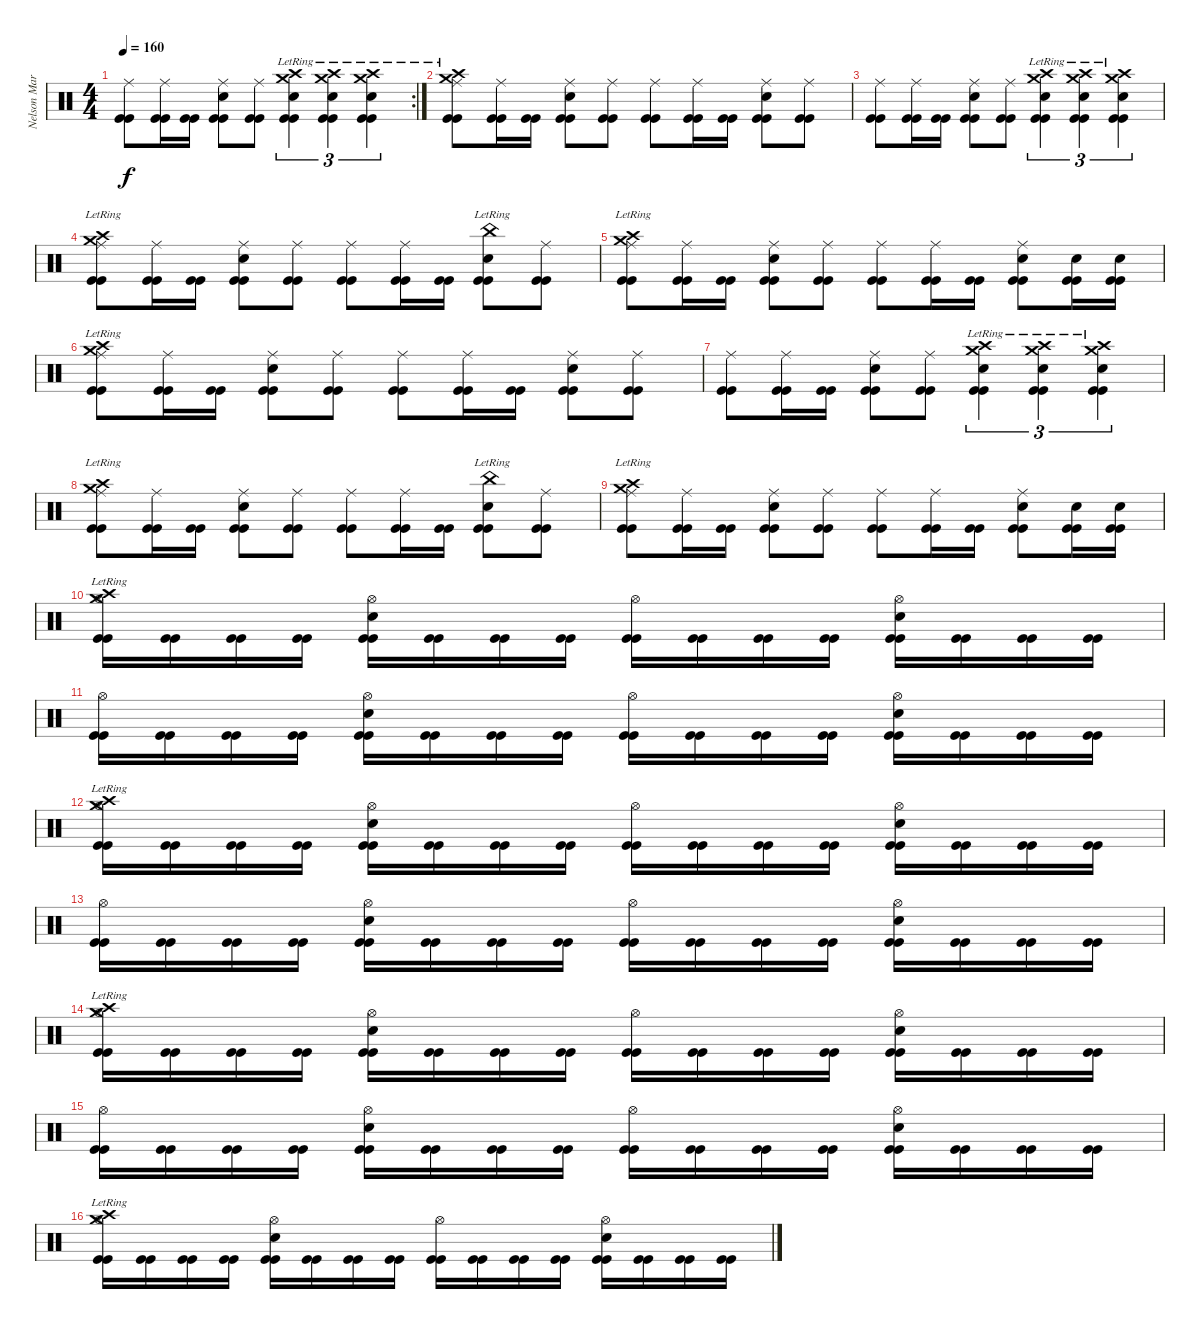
\track ("Nelson Maria" "Nelson Mar") {instrument percussion}
\staff {score}
\articulation defaults
\rc 2
\ts (4 4)
\tempo 160
\clef neutral
\ks c
("Ride (middle)" "Kick (hit)" "Kick (hit)").8{dy f} ("Ride (middle)" "Kick (hit)" "Kick (hit)").16 ("Kick (hit)" "Kick (hit)").16 ("Snare (hit) 2" "Ride (middle)" "Kick (hit)" "Kick (hit)").8 ("Ride (middle)" "Kick (hit)" "Kick (hit)").8 ("Crash high (hit)"{lr} "Crash medium (hit)"{lr} "Snare (hit) 2" "Kick (hit)" "Kick (hit)").4{tu (3 2)} ("Crash high (hit)"{lr} "Crash medium (hit)"{lr} "Snare (hit) 2" "Kick (hit)" "Kick (hit)").4{tu (3 2)} ("Crash high (hit)"{lr} "Crash medium (hit)"{lr} "Snare (hit) 2" "Kick (hit)" "Kick (hit)").4{tu (3 2)} |
("Crash high (hit)"{lr} "Crash medium (hit)"{lr} "Ride (middle)" "Kick (hit)" "Kick (hit)").8 ("Ride (middle)" "Kick (hit)" "Kick (hit)").16 ("Kick (hit)" "Kick (hit)").16 ("Snare (hit) 2" "Ride (middle)" "Kick (hit)" "Kick (hit)").8 ("Ride (middle)" "Kick (hit)" "Kick (hit)").8 ("Ride (middle)" "Kick (hit)" "Kick (hit)").8 ("Ride (middle)" "Kick (hit)" "Kick (hit)").16 ("Kick (hit)" "Kick (hit)").16 ("Snare (hit) 2" "Ride (middle)" "Kick (hit)" "Kick (hit)").8 ("Ride (middle)" "Kick (hit)" "Kick (hit)").8 |
("Ride (middle)" "Kick (hit)" "Kick (hit)").8 ("Ride (middle)" "Kick (hit)" "Kick (hit)").16 ("Kick (hit)" "Kick (hit)").16 ("Snare (hit) 2" "Ride (middle)" "Kick (hit)" "Kick (hit)").8 ("Ride (middle)" "Kick (hit)" "Kick (hit)").8 ("Crash high (hit)"{lr} "Crash medium (hit)"{lr} "Snare (hit) 2" "Kick (hit)" "Kick (hit)").4{tu (3 2)} ("Crash high (hit)"{lr} "Crash medium (hit)"{lr} "Snare (hit) 2" "Kick (hit)" "Kick (hit)").4{tu (3 2)} ("Crash high (hit)"{lr} "Crash medium (hit)"{lr} "Snare (hit) 2" "Kick (hit)" "Kick (hit)").4{tu (3 2)} |
("Crash high (hit)"{lr} "Crash medium (hit)"{lr} "Ride (middle)" "Kick (hit)" "Kick (hit)").8 ("Ride (middle)" "Kick (hit)" "Kick (hit)").16 ("Kick (hit)" "Kick (hit)").16 ("Snare (hit) 2" "Ride (middle)" "Kick (hit)" "Kick (hit)").8 ("Ride (middle)" "Kick (hit)" "Kick (hit)").8 ("Ride (middle)" "Kick (hit)" "Kick (hit)").8 ("Ride (middle)" "Kick (hit)" "Kick (hit)").16 ("Kick (hit)" "Kick (hit)").16 ("China (hit)"{lr} "Snare (hit) 2" "Kick (hit)" "Kick (hit)").8 ("Ride (middle)" "Kick (hit)" "Kick (hit)").8 |
("Crash high (hit)"{lr} "Crash medium (hit)"{lr} "Ride (middle)" "Kick (hit)" "Kick (hit)").8 ("Ride (middle)" "Kick (hit)" "Kick (hit)").16 ("Kick (hit)" "Kick (hit)").16 ("Snare (hit) 2" "Ride (middle)" "Kick (hit)" "Kick (hit)").8 ("Ride (middle)" "Kick (hit)" "Kick (hit)").8 ("Ride (middle)" "Kick (hit)" "Kick (hit)").8 ("Ride (middle)" "Kick (hit)" "Kick (hit)").16 ("Kick (hit)" "Kick (hit)").16 ("Snare (hit) 2" "Ride (middle)" "Kick (hit)" "Kick (hit)").8 ("Snare (hit) 2" "Kick (hit)" "Kick (hit)").16 ("Snare (hit) 2" "Kick (hit)" "Kick (hit)").16 |
("Crash high (hit)"{lr} "Crash medium (hit)"{lr} "Ride (middle)" "Kick (hit)" "Kick (hit)").8 ("Ride (middle)" "Kick (hit)" "Kick (hit)").16 ("Kick (hit)" "Kick (hit)").16 ("Snare (hit) 2" "Ride (middle)" "Kick (hit)" "Kick (hit)").8 ("Ride (middle)" "Kick (hit)" "Kick (hit)").8 ("Ride (middle)" "Kick (hit)" "Kick (hit)").8 ("Ride (middle)" "Kick (hit)" "Kick (hit)").16 ("Kick (hit)" "Kick (hit)").16 ("Snare (hit) 2" "Ride (middle)" "Kick (hit)" "Kick (hit)").8 ("Ride (middle)" "Kick (hit)" "Kick (hit)").8 |
("Ride (middle)" "Kick (hit)" "Kick (hit)").8 ("Ride (middle)" "Kick (hit)" "Kick (hit)").16 ("Kick (hit)" "Kick (hit)").16 ("Snare (hit) 2" "Ride (middle)" "Kick (hit)" "Kick (hit)").8 ("Ride (middle)" "Kick (hit)" "Kick (hit)").8 ("Crash high (hit)"{lr} "Crash medium (hit)"{lr} "Snare (hit) 2" "Kick (hit)" "Kick (hit)").4{tu (3 2)} ("Crash high (hit)"{lr} "Crash medium (hit)"{lr} "Snare (hit) 2" "Kick (hit)" "Kick (hit)").4{tu (3 2)} ("Crash high (hit)"{lr} "Crash medium (hit)"{lr} "Snare (hit) 2" "Kick (hit)" "Kick (hit)").4{tu (3 2)} |
("Crash high (hit)"{lr} "Crash medium (hit)"{lr} "Ride (middle)" "Kick (hit)" "Kick (hit)").8 ("Ride (middle)" "Kick (hit)" "Kick (hit)").16 ("Kick (hit)" "Kick (hit)").16 ("Snare (hit) 2" "Ride (middle)" "Kick (hit)" "Kick (hit)").8 ("Ride (middle)" "Kick (hit)" "Kick (hit)").8 ("Ride (middle)" "Kick (hit)" "Kick (hit)").8 ("Ride (middle)" "Kick (hit)" "Kick (hit)").16 ("Kick (hit)" "Kick (hit)").16 ("China (hit)"{lr} "Snare (hit) 2" "Kick (hit)" "Kick (hit)").8 ("Ride (middle)" "Kick (hit)" "Kick (hit)").8 |
("Crash high (hit)"{lr} "Crash medium (hit)"{lr} "Ride (middle)" "Kick (hit)" "Kick (hit)").8 ("Ride (middle)" "Kick (hit)" "Kick (hit)").16 ("Kick (hit)" "Kick (hit)").16 ("Snare (hit) 2" "Ride (middle)" "Kick (hit)" "Kick (hit)").8 ("Ride (middle)" "Kick (hit)" "Kick (hit)").8 ("Ride (middle)" "Kick (hit)" "Kick (hit)").8 ("Ride (middle)" "Kick (hit)" "Kick (hit)").16 ("Kick (hit)" "Kick (hit)").16 ("Snare (hit) 2" "Ride (middle)" "Kick (hit)" "Kick (hit)").8 ("Snare (hit) 2" "Kick (hit)" "Kick (hit)").16 ("Snare (hit) 2" "Kick (hit)" "Kick (hit)").16 |
("Crash high (hit)"{lr} "Crash medium (hit)"{lr} "Hi-Hat (open)" "Kick (hit)" "Kick (hit)").16 ("Kick (hit)" "Kick (hit)").16 ("Kick (hit)" "Kick (hit)").16 ("Kick (hit)" "Kick (hit)").16 ("Snare (hit) 2" "Hi-Hat (open)" "Kick (hit)" "Kick (hit)").16 ("Kick (hit)" "Kick (hit)").16 ("Kick (hit)" "Kick (hit)").16 ("Kick (hit)" "Kick (hit)").16 ("Hi-Hat (open)" "Kick (hit)" "Kick (hit)").16 ("Kick (hit)" "Kick (hit)").16 ("Kick (hit)" "Kick (hit)").16 ("Kick (hit)" "Kick (hit)").16 ("Snare (hit) 2" "Hi-Hat (open)" "Kick (hit)" "Kick (hit)").16 ("Kick (hit)" "Kick (hit)").16 ("Kick (hit)" "Kick (hit)").16 ("Kick (hit)" "Kick (hit)").16 |
("Hi-Hat (open)" "Kick (hit)" "Kick (hit)").16 ("Kick (hit)" "Kick (hit)").16 ("Kick (hit)" "Kick (hit)").16 ("Kick (hit)" "Kick (hit)").16 ("Snare (hit) 2" "Hi-Hat (open)" "Kick (hit)" "Kick (hit)").16 ("Kick (hit)" "Kick (hit)").16 ("Kick (hit)" "Kick (hit)").16 ("Kick (hit)" "Kick (hit)").16 ("Hi-Hat (open)" "Kick (hit)" "Kick (hit)").16 ("Kick (hit)" "Kick (hit)").16 ("Kick (hit)" "Kick (hit)").16 ("Kick (hit)" "Kick (hit)").16 ("Snare (hit) 2" "Hi-Hat (open)" "Kick (hit)" "Kick (hit)").16 ("Kick (hit)" "Kick (hit)").16 ("Kick (hit)" "Kick (hit)").16 ("Kick (hit)" "Kick (hit)").16 |
("Crash high (hit)"{lr} "Crash medium (hit)"{lr} "Hi-Hat (open)" "Kick (hit)" "Kick (hit)").16 ("Kick (hit)" "Kick (hit)").16 ("Kick (hit)" "Kick (hit)").16 ("Kick (hit)" "Kick (hit)").16 ("Snare (hit) 2" "Hi-Hat (open)" "Kick (hit)" "Kick (hit)").16 ("Kick (hit)" "Kick (hit)").16 ("Kick (hit)" "Kick (hit)").16 ("Kick (hit)" "Kick (hit)").16 ("Hi-Hat (open)" "Kick (hit)" "Kick (hit)").16 ("Kick (hit)" "Kick (hit)").16 ("Kick (hit)" "Kick (hit)").16 ("Kick (hit)" "Kick (hit)").16 ("Snare (hit) 2" "Hi-Hat (open)" "Kick (hit)" "Kick (hit)").16 ("Kick (hit)" "Kick (hit)").16 ("Kick (hit)" "Kick (hit)").16 ("Kick (hit)" "Kick (hit)").16 |
("Hi-Hat (open)" "Kick (hit)" "Kick (hit)").16 ("Kick (hit)" "Kick (hit)").16 ("Kick (hit)" "Kick (hit)").16 ("Kick (hit)" "Kick (hit)").16 ("Snare (hit) 2" "Hi-Hat (open)" "Kick (hit)" "Kick (hit)").16 ("Kick (hit)" "Kick (hit)").16 ("Kick (hit)" "Kick (hit)").16 ("Kick (hit)" "Kick (hit)").16 ("Hi-Hat (open)" "Kick (hit)" "Kick (hit)").16 ("Kick (hit)" "Kick (hit)").16 ("Kick (hit)" "Kick (hit)").16 ("Kick (hit)" "Kick (hit)").16 ("Snare (hit) 2" "Hi-Hat (open)" "Kick (hit)" "Kick (hit)").16 ("Kick (hit)" "Kick (hit)").16 ("Kick (hit)" "Kick (hit)").16 ("Kick (hit)" "Kick (hit)").16 |
("Crash high (hit)"{lr} "Crash medium (hit)"{lr} "Hi-Hat (open)" "Kick (hit)" "Kick (hit)").16 ("Kick (hit)" "Kick (hit)").16 ("Kick (hit)" "Kick (hit)").16 ("Kick (hit)" "Kick (hit)").16 ("Snare (hit) 2" "Hi-Hat (open)" "Kick (hit)" "Kick (hit)").16 ("Kick (hit)" "Kick (hit)").16 ("Kick (hit)" "Kick (hit)").16 ("Kick (hit)" "Kick (hit)").16 ("Hi-Hat (open)" "Kick (hit)" "Kick (hit)").16 ("Kick (hit)" "Kick (hit)").16 ("Kick (hit)" "Kick (hit)").16 ("Kick (hit)" "Kick (hit)").16 ("Snare (hit) 2" "Hi-Hat (open)" "Kick (hit)" "Kick (hit)").16 ("Kick (hit)" "Kick (hit)").16 ("Kick (hit)" "Kick (hit)").16 ("Kick (hit)" "Kick (hit)").16 |
("Hi-Hat (open)" "Kick (hit)" "Kick (hit)").16 ("Kick (hit)" "Kick (hit)").16 ("Kick (hit)" "Kick (hit)").16 ("Kick (hit)" "Kick (hit)").16 ("Snare (hit) 2" "Hi-Hat (open)" "Kick (hit)" "Kick (hit)").16 ("Kick (hit)" "Kick (hit)").16 ("Kick (hit)" "Kick (hit)").16 ("Kick (hit)" "Kick (hit)").16 ("Hi-Hat (open)" "Kick (hit)" "Kick (hit)").16 ("Kick (hit)" "Kick (hit)").16 ("Kick (hit)" "Kick (hit)").16 ("Kick (hit)" "Kick (hit)").16 ("Snare (hit) 2" "Hi-Hat (open)" "Kick (hit)" "Kick (hit)").16 ("Kick (hit)" "Kick (hit)").16 ("Kick (hit)" "Kick (hit)").16 ("Kick (hit)" "Kick (hit)").16 |
("Crash high (hit)"{lr} "Crash medium (hit)"{lr} "Hi-Hat (open)" "Kick (hit)" "Kick (hit)").16 ("Kick (hit)" "Kick (hit)").16 ("Kick (hit)" "Kick (hit)").16 ("Kick (hit)" "Kick (hit)").16 ("Snare (hit) 2" "Hi-Hat (open)" "Kick (hit)" "Kick (hit)").16 ("Kick (hit)" "Kick (hit)").16 ("Kick (hit)" "Kick (hit)").16 ("Kick (hit)" "Kick (hit)").16 ("Hi-Hat (open)" "Kick (hit)" "Kick (hit)").16 ("Kick (hit)" "Kick (hit)").16 ("Kick (hit)" "Kick (hit)").16 ("Kick (hit)" "Kick (hit)").16 ("Snare (hit) 2" "Hi-Hat (open)" "Kick (hit)" "Kick (hit)").16 ("Kick (hit)" "Kick (hit)").16 ("Kick (hit)" "Kick (hit)").16 ("Kick (hit)" "Kick (hit)").16
